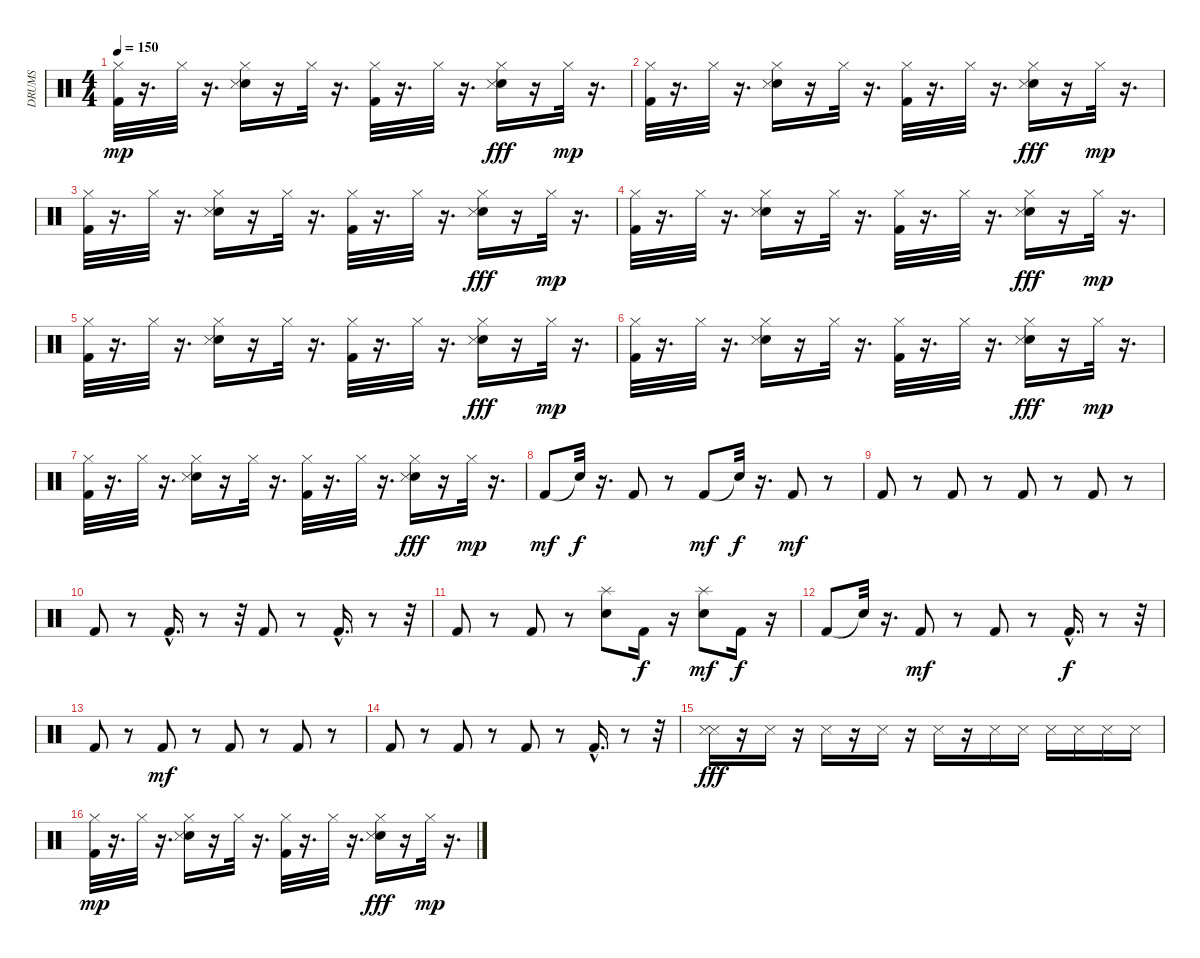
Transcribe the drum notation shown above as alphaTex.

\track ("DRUMS" "DRUMS") {instrument percussion}
\staff {score}
\articulation defaults
\ts (4 4)
\tempo 150
\clef neutral
\ks c
("Hi-Hat (closed)" "Kick (hit) 2").32{dy mp} r.16{d} "Hi-Hat (closed)".32 r.16{d} ("Snare (hit) 2" "Snare (side stick) 3" "Hi-Hat (closed)").16 r.16 "Hi-Hat (closed)".32 r.16{d} ("Kick (hit) 2" "Hi-Hat (closed)").32 r.16{d} "Hi-Hat (closed)".32 r.16{d} ("Snare (hit) 2" "Hi-Hat (closed)" "Snare (side stick) 3").16{dy fff} r.16 "Hi-Hat (closed)".32{dy mp} r.16{d} |
("Hi-Hat (closed)" "Kick (hit) 2").32 r.16{d} "Hi-Hat (closed)".32 r.16{d} ("Snare (hit) 2" "Snare (side stick) 3" "Hi-Hat (closed)").16 r.16 "Hi-Hat (closed)".32 r.16{d} ("Kick (hit) 2" "Hi-Hat (closed)").32 r.16{d} "Hi-Hat (closed)".32 r.16{d} ("Snare (hit) 2" "Hi-Hat (closed)" "Snare (side stick) 3").16{dy fff} r.16 "Hi-Hat (closed)".32{dy mp} r.16{d} |
("Hi-Hat (closed)" "Kick (hit) 2").32 r.16{d} "Hi-Hat (closed)".32 r.16{d} ("Snare (hit) 2" "Snare (side stick) 3" "Hi-Hat (closed)").16 r.16 "Hi-Hat (closed)".32 r.16{d} ("Kick (hit) 2" "Hi-Hat (closed)").32 r.16{d} "Hi-Hat (closed)".32 r.16{d} ("Snare (hit) 2" "Hi-Hat (closed)" "Snare (side stick) 3").16{dy fff} r.16 "Hi-Hat (closed)".32{dy mp} r.16{d} |
("Hi-Hat (closed)" "Kick (hit) 2").32 r.16{d} "Hi-Hat (closed)".32 r.16{d} ("Snare (hit) 2" "Snare (side stick) 3" "Hi-Hat (closed)").16 r.16 "Hi-Hat (closed)".32 r.16{d} ("Kick (hit) 2" "Hi-Hat (closed)").32 r.16{d} "Hi-Hat (closed)".32 r.16{d} ("Snare (hit) 2" "Hi-Hat (closed)" "Snare (side stick) 3").16{dy fff} r.16 "Hi-Hat (closed)".32{dy mp} r.16{d} |
("Hi-Hat (closed)" "Kick (hit) 2").32 r.16{d} "Hi-Hat (closed)".32 r.16{d} ("Snare (hit) 2" "Snare (side stick) 3" "Hi-Hat (closed)").16 r.16 "Hi-Hat (closed)".32 r.16{d} ("Kick (hit) 2" "Hi-Hat (closed)").32 r.16{d} "Hi-Hat (closed)".32 r.16{d} ("Snare (hit) 2" "Hi-Hat (closed)" "Snare (side stick) 3").16{dy fff} r.16 "Hi-Hat (closed)".32{dy mp} r.16{d} |
("Hi-Hat (closed)" "Kick (hit) 2").32 r.16{d} "Hi-Hat (closed)".32 r.16{d} ("Snare (hit) 2" "Snare (side stick) 3" "Hi-Hat (closed)").16 r.16 "Hi-Hat (closed)".32 r.16{d} ("Kick (hit) 2" "Hi-Hat (closed)").32 r.16{d} "Hi-Hat (closed)".32 r.16{d} ("Snare (hit) 2" "Hi-Hat (closed)" "Snare (side stick) 3").16{dy fff} r.16 "Hi-Hat (closed)".32{dy mp} r.16{d} |
("Hi-Hat (closed)" "Kick (hit) 2").32 r.16{d} "Hi-Hat (closed)".32 r.16{d} ("Snare (hit) 2" "Snare (side stick) 3" "Hi-Hat (closed)").16 r.16 "Hi-Hat (closed)".32 r.16{d} ("Kick (hit) 2" "Hi-Hat (closed)").32 r.16{d} "Hi-Hat (closed)".32 r.16{d} ("Snare (hit) 2" "Hi-Hat (closed)" "Snare (side stick) 3").16{dy fff} r.16 "Hi-Hat (closed)".32{dy mp} r.16{d} |
"Kick (hit) 2".8{dy mf} "Snare (hit)"{t}.32{dy f} r.16{d} "Kick (hit) 2".8 r.8 "Kick (hit) 2".8{dy mf} "Snare (hit)"{t}.32{dy f} r.16{d} "Kick (hit) 2".8{dy mf} r.8 |
"Kick (hit) 2".8 r.8 "Kick (hit) 2".8 r.8 "Kick (hit) 2".8 r.8 "Kick (hit) 2".8 r.8 |
"Kick (hit) 2".8 r.8 "Kick (hit) 2"{hac}.16{d} r.8 r.32 "Kick (hit) 2".8 r.8 "Kick (hit) 2"{hac}.16{d} r.8 r.32 |
"Kick (hit) 2".8 r.8 "Kick (hit) 2".8 r.8 ("Electric Snare (hit)" "Splash (hit)").8 "Kick (hit) 2".16{dy f} r.16 ("Electric Snare (hit)" "Splash (hit)").8{dy mf} "Kick (hit) 2".16{dy f} r.16 |
"Kick (hit) 2".8 "Snare (hit)"{t}.32 r.16{d} "Kick (hit) 2".8{dy mf} r.8 "Kick (hit) 2".8 r.8 "Kick (hit) 2"{hac}.16{d dy f} r.8 r.32 |
"Kick (hit) 2".8 r.8 "Kick (hit) 2".8{dy mf} r.8 "Kick (hit) 2".8 r.8 "Kick (hit) 2".8 r.8 |
"Kick (hit) 2".8 r.8 "Kick (hit) 2".8 r.8 "Kick (hit) 2".8 r.8 "Kick (hit) 2"{hac}.16{d} r.8 r.32 |
("Metronome (hit)" "Metronome (hit)").16{dy fff} r.16 "Metronome (hit)".16 r.16 "Metronome (hit)".16 r.16 "Metronome (hit)".16 r.16 "Metronome (hit)".16 r.16 "Metronome (hit)".16 "Metronome (hit)".16 "Metronome (hit)".16 "Metronome (hit)".16 "Metronome (hit)".16 "Metronome (hit)".16 |
("Hi-Hat (closed)" "Kick (hit) 2").32{dy mp} r.16{d} "Hi-Hat (closed)".32 r.16{d} ("Snare (hit) 2" "Snare (side stick) 3" "Hi-Hat (closed)").16 r.16 "Hi-Hat (closed)".32 r.16{d} ("Kick (hit) 2" "Hi-Hat (closed)").32 r.16{d} "Hi-Hat (closed)".32 r.16{d} ("Snare (hit) 2" "Hi-Hat (closed)" "Snare (side stick) 3").16{dy fff} r.16 "Hi-Hat (closed)".32{dy mp} r.16{d}
